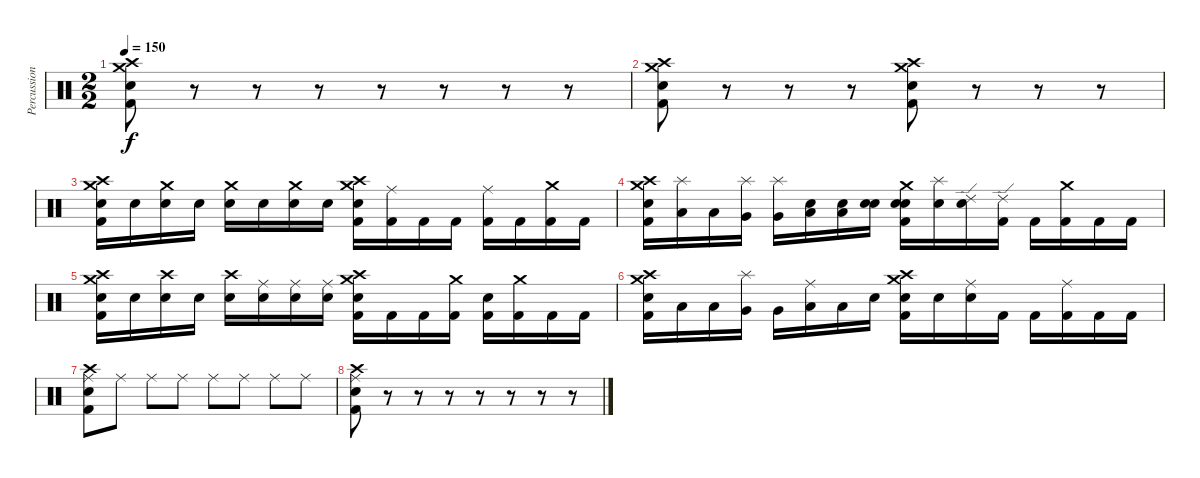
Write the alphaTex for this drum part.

\track ("Percussion" "Percussion") {instrument percussion}
\staff {score}
\articulation defaults
\ts (2 2)
\tempo 150
\clef neutral
\ks c
("Crash medium (hit)" "Crash high (hit)" "Snare (hit) 2" "Kick (hit) 2").8{dy f} r.8 r.8 r.8 r.8 r.8 r.8 r.8 |
("Crash medium (hit)" "Crash high (hit)" "Snare (hit) 2" "Kick (hit) 2").8 r.8 r.8 r.8 ("Crash medium (hit)" "Crash high (hit)" "Snare (hit) 2" "Kick (hit) 2").8 r.8 r.8 r.8 |
("Crash medium (hit)" "Crash high (hit)" "Snare (hit) 2" "Kick (hit) 2").16 "Snare (hit) 2".16 ("Crash medium (hit)" "Snare (hit) 2").16 "Snare (hit) 2".16 ("Crash medium (hit)" "Snare (hit) 2").16 "Snare (hit) 2".16 ("Crash medium (hit)" "Snare (hit) 2").16 "Snare (hit) 2".16 ("Crash medium (hit)" "Crash high (hit)" "Snare (hit) 2" "Kick (hit) 2").16 ("Ride (middle)" "Kick (hit) 2").16 "Kick (hit) 2".16 "Kick (hit) 2".16 ("Ride (middle)" "Kick (hit) 2").16 "Kick (hit) 2".16 ("Crash medium (hit)" "Kick (hit) 2").16 "Kick (hit) 2".16 |
("Crash medium (hit)" "Crash high (hit)" "Snare (hit) 2" "Kick (hit) 2").16 ("Splash (hit)" "Low Tom (hit)").16 "Low Tom (hit)".16 ("Splash (hit)" "Very Low Tom (hit)").16 ("Splash (hit)" "Very Low Tom (hit)").16 ("Snare (hit)" "Low Floor Tom (hit)").16 ("Snare (hit)" "Low Floor Tom (hit)").16 ("Snare (hit)" "Snare (hit) 2").16 ("Crash medium (hit)" "Snare (hit)" "Snare (hit) 2" "Kick (hit) 2").16 ("Splash (hit)" "Snare (hit) 2").16 ("Ride (edge) 2" "Snare (hit) 2").16 ("Ride (edge) 2" "Kick (hit) 2").16 "Kick (hit) 2".16 ("Crash medium (hit)" "Kick (hit) 2").16 "Kick (hit) 2".16 "Kick (hit) 2".16 |
("Crash medium (hit)" "Crash high (hit)" "Snare (hit) 2" "Kick (hit) 2").16 "Snare (hit) 2".16 ("Crash high (hit)" "Snare (hit) 2").16 "Snare (hit) 2".16 ("Crash high (hit)" "Snare (hit) 2").16 ("Ride (middle)" "Snare (hit) 2").16 ("Ride (middle)" "Snare (hit) 2").16 ("Ride (middle)" "Snare (hit) 2").16 ("Crash medium (hit)" "Crash high (hit)" "Snare (hit) 2" "Kick (hit) 2").16 "Kick (hit) 2".16 "Kick (hit) 2".16 ("Crash medium (hit)" "Kick (hit) 2").16 ("Snare (hit)" "Kick (hit) 2").16 ("Crash medium (hit)" "Kick (hit) 2").16 "Kick (hit) 2".16 "Kick (hit) 2".16 |
("Crash medium (hit)" "Crash high (hit)" "Snare (hit) 2" "Kick (hit) 2").16 "Low Tom (hit)".16 "Low Tom (hit)".16 ("Splash (hit)" "Very Low Tom (hit)").16 "Very Low Tom (hit)".16 ("Ride (middle)" "Low Floor Tom (hit)").16 "Low Floor Tom (hit)".16 "Snare (hit) 2".16 ("Crash medium (hit)" "Crash high (hit)" "Snare (hit) 2" "Kick (hit) 2").16 "Snare (hit) 2".16 ("Ride (middle)" "Snare (hit) 2").16 "Kick (hit) 2".16 "Kick (hit) 2".16 ("Ride (middle)" "Kick (hit) 2").16 "Kick (hit) 2".16 "Kick (hit) 2".16 |
("Ride (middle)" "Crash high (hit)" "Snare (hit) 2" "Kick (hit) 2").8 "Ride (middle)".8 "Ride (middle)".8 "Ride (middle)".8 "Ride (middle)".8 "Ride (middle)".8 "Ride (middle)".8 "Ride (middle)".8 |
("Ride (middle)" "Crash high (hit)" "Snare (hit) 2" "Kick (hit) 2").8 r.8 r.8 r.8 r.8 r.8 r.8 r.8
